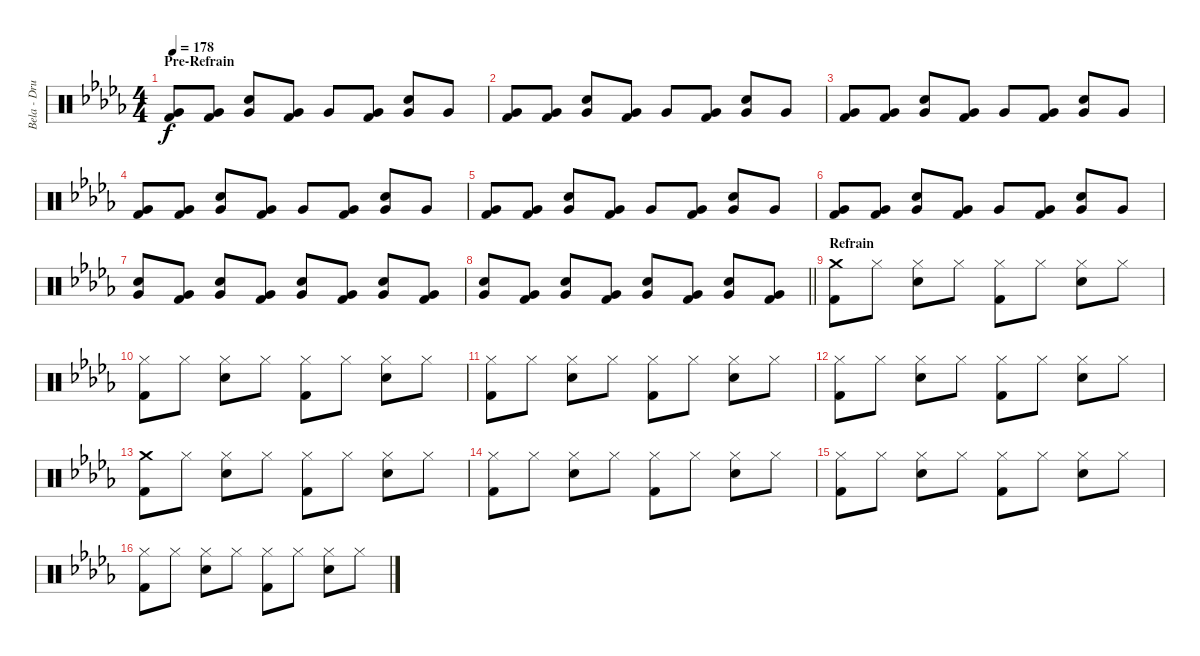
\track ("Bela - Drums" "Bela - Dru") {instrument percussion}
\staff {score}
\articulation defaults
\ts (4 4)
\section ("" "Pre-Refrain")
\tempo 178
\clef neutral
\ks db
("Very Low Tom (hit)" "Kick (hit) 2").8{dy f} ("Very Low Tom (hit)" "Kick (hit) 2").8 ("Snare (hit) 2" "Very Low Tom (hit)").8 ("Very Low Tom (hit)" "Kick (hit) 2").8 "Very Low Tom (hit)".8 ("Very Low Tom (hit)" "Kick (hit) 2").8 ("Snare (hit) 2" "Very Low Tom (hit)").8 "Very Low Tom (hit)".8 |
("Very Low Tom (hit)" "Kick (hit) 2").8 ("Very Low Tom (hit)" "Kick (hit) 2").8 ("Snare (hit) 2" "Very Low Tom (hit)").8 ("Very Low Tom (hit)" "Kick (hit) 2").8 "Very Low Tom (hit)".8 ("Very Low Tom (hit)" "Kick (hit) 2").8 ("Snare (hit) 2" "Very Low Tom (hit)").8 "Very Low Tom (hit)".8 |
("Very Low Tom (hit)" "Kick (hit) 2").8 ("Very Low Tom (hit)" "Kick (hit) 2").8 ("Snare (hit) 2" "Very Low Tom (hit)").8 ("Very Low Tom (hit)" "Kick (hit) 2").8 "Very Low Tom (hit)".8 ("Very Low Tom (hit)" "Kick (hit) 2").8 ("Snare (hit) 2" "Very Low Tom (hit)").8 "Very Low Tom (hit)".8 |
("Very Low Tom (hit)" "Kick (hit) 2").8 ("Very Low Tom (hit)" "Kick (hit) 2").8 ("Snare (hit) 2" "Very Low Tom (hit)").8 ("Very Low Tom (hit)" "Kick (hit) 2").8 "Very Low Tom (hit)".8 ("Very Low Tom (hit)" "Kick (hit) 2").8 ("Snare (hit) 2" "Very Low Tom (hit)").8 "Very Low Tom (hit)".8 |
("Very Low Tom (hit)" "Kick (hit) 2").8 ("Very Low Tom (hit)" "Kick (hit) 2").8 ("Snare (hit) 2" "Very Low Tom (hit)").8 ("Very Low Tom (hit)" "Kick (hit) 2").8 "Very Low Tom (hit)".8 ("Very Low Tom (hit)" "Kick (hit) 2").8 ("Snare (hit) 2" "Very Low Tom (hit)").8 "Very Low Tom (hit)".8 |
("Very Low Tom (hit)" "Kick (hit) 2").8 ("Very Low Tom (hit)" "Kick (hit) 2").8 ("Snare (hit) 2" "Very Low Tom (hit)").8 ("Very Low Tom (hit)" "Kick (hit) 2").8 "Very Low Tom (hit)".8 ("Very Low Tom (hit)" "Kick (hit) 2").8 ("Snare (hit) 2" "Very Low Tom (hit)").8 "Very Low Tom (hit)".8 |
("Snare (hit) 2" "Very Low Tom (hit)").8 ("Very Low Tom (hit)" "Kick (hit) 2").8 ("Snare (hit) 2" "Very Low Tom (hit)").8 ("Very Low Tom (hit)" "Kick (hit) 2").8 ("Snare (hit) 2" "Very Low Tom (hit)").8 ("Very Low Tom (hit)" "Kick (hit) 2").8 ("Snare (hit) 2" "Very Low Tom (hit)").8 ("Very Low Tom (hit)" "Kick (hit) 2").8 |
\barLineRight lightlight
("Snare (hit) 2" "Very Low Tom (hit)").8 ("Very Low Tom (hit)" "Kick (hit) 2").8 ("Snare (hit) 2" "Very Low Tom (hit)").8 ("Very Low Tom (hit)" "Kick (hit) 2").8 ("Snare (hit) 2" "Very Low Tom (hit)").8 ("Very Low Tom (hit)" "Kick (hit) 2").8 ("Snare (hit) 2" "Very Low Tom (hit)").8 ("Very Low Tom (hit)" "Kick (hit) 2").8 |
\section ("" "Refrain")
("Crash medium (hit)" "Kick (hit) 2").8 "Hi-Hat (closed)".8 ("Hi-Hat (closed)" "Snare (hit) 2").8 "Hi-Hat (closed)".8 ("Hi-Hat (closed)" "Kick (hit) 2").8 "Hi-Hat (closed)".8 ("Hi-Hat (closed)" "Snare (hit) 2").8 "Hi-Hat (closed)".8 |
("Hi-Hat (closed)" "Kick (hit) 2").8 "Hi-Hat (closed)".8 ("Hi-Hat (closed)" "Snare (hit) 2").8 "Hi-Hat (closed)".8 ("Hi-Hat (closed)" "Kick (hit) 2").8 "Hi-Hat (closed)".8 ("Hi-Hat (closed)" "Snare (hit) 2").8 "Hi-Hat (closed)".8 |
("Hi-Hat (closed)" "Kick (hit) 2").8 "Hi-Hat (closed)".8 ("Hi-Hat (closed)" "Snare (hit) 2").8 "Hi-Hat (closed)".8 ("Hi-Hat (closed)" "Kick (hit) 2").8 "Hi-Hat (closed)".8 ("Hi-Hat (closed)" "Snare (hit) 2").8 "Hi-Hat (closed)".8 |
("Hi-Hat (closed)" "Kick (hit) 2").8 "Hi-Hat (closed)".8 ("Hi-Hat (closed)" "Snare (hit) 2").8 "Hi-Hat (closed)".8 ("Hi-Hat (closed)" "Kick (hit) 2").8 "Hi-Hat (closed)".8 ("Hi-Hat (closed)" "Snare (hit) 2").8 "Hi-Hat (closed)".8 |
("Crash medium (hit)" "Kick (hit) 2").8 "Hi-Hat (closed)".8 ("Hi-Hat (closed)" "Snare (hit) 2").8 "Hi-Hat (closed)".8 ("Hi-Hat (closed)" "Kick (hit) 2").8 "Hi-Hat (closed)".8 ("Hi-Hat (closed)" "Snare (hit) 2").8 "Hi-Hat (closed)".8 |
("Hi-Hat (closed)" "Kick (hit) 2").8 "Hi-Hat (closed)".8 ("Hi-Hat (closed)" "Snare (hit) 2").8 "Hi-Hat (closed)".8 ("Hi-Hat (closed)" "Kick (hit) 2").8 "Hi-Hat (closed)".8 ("Hi-Hat (closed)" "Snare (hit) 2").8 "Hi-Hat (closed)".8 |
("Hi-Hat (closed)" "Kick (hit) 2").8 "Hi-Hat (closed)".8 ("Hi-Hat (closed)" "Snare (hit) 2").8 "Hi-Hat (closed)".8 ("Hi-Hat (closed)" "Kick (hit) 2").8 "Hi-Hat (closed)".8 ("Hi-Hat (closed)" "Snare (hit) 2").8 "Hi-Hat (closed)".8 |
("Hi-Hat (closed)" "Kick (hit) 2").8 "Hi-Hat (closed)".8 ("Hi-Hat (closed)" "Snare (hit) 2").8 "Hi-Hat (closed)".8 ("Hi-Hat (closed)" "Kick (hit) 2").8 "Hi-Hat (closed)".8 ("Hi-Hat (closed)" "Snare (hit) 2").8 "Hi-Hat (closed)".8
